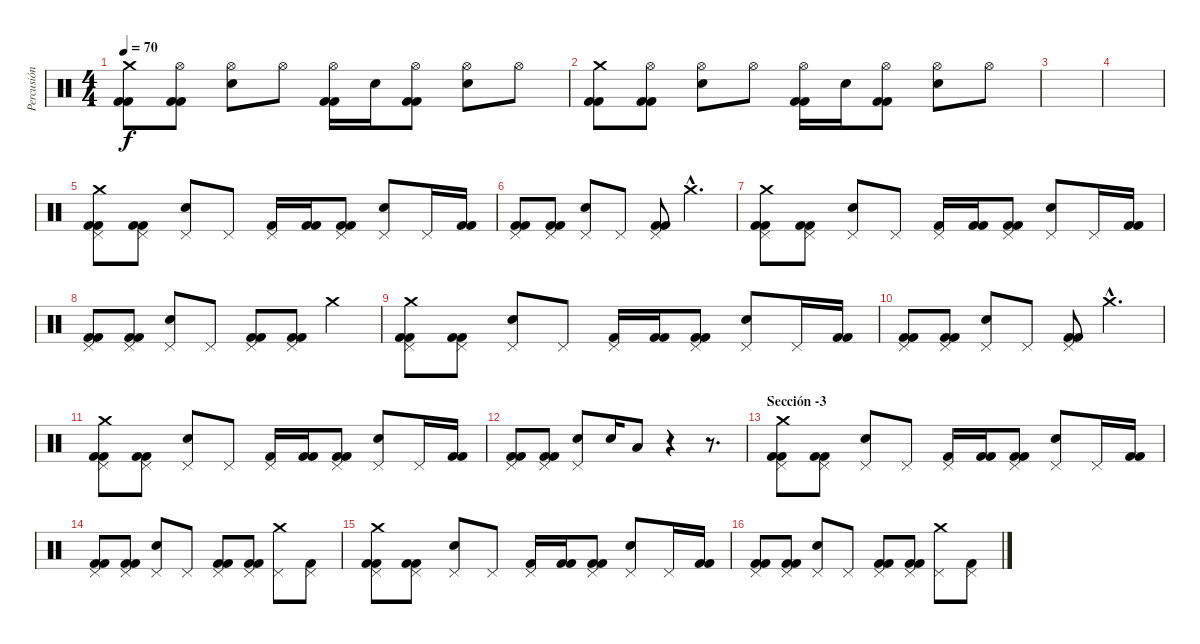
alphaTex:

\track ("Percusión" "Percusión") {instrument percussion}
\staff {score}
\articulation defaults
\ts (4 4)
\tempo 70
\clef neutral
\ks c
("Crash medium (hit)" "Kick (hit) 2" "Kick (hit) 2").8{dy f} ("Hi-Hat (open)" "Kick (hit) 2" "Kick (hit) 2").8 ("Hi-Hat (open)" "Electric Snare (hit)").8 "Hi-Hat (open)".8 ("Hi-Hat (open)" "Kick (hit) 2" "Kick (hit) 2").16 "Electric Snare (hit)".16 ("Hi-Hat (open)" "Kick (hit) 2" "Kick (hit) 2").8 ("Hi-Hat (open)" "Electric Snare (hit)").8 "Hi-Hat (open)".8 |
("Crash medium (hit)" "Kick (hit) 2" "Kick (hit) 2").8 ("Hi-Hat (open)" "Kick (hit) 2" "Kick (hit) 2").8 ("Hi-Hat (open)" "Electric Snare (hit)").8 "Hi-Hat (open)".8 ("Hi-Hat (open)" "Kick (hit) 2" "Kick (hit) 2").16 "Electric Snare (hit)".16 ("Hi-Hat (open)" "Kick (hit) 2" "Kick (hit) 2").8 ("Hi-Hat (open)" "Electric Snare (hit)").8 "Hi-Hat (open)".8 |
|
|
("Crash medium (hit)" "Pedal Hi-Hat (hit)" "Kick (hit) 2" "Kick (hit) 2").8 ("Pedal Hi-Hat (hit)" "Kick (hit) 2" "Kick (hit) 2").8 ("Snare (hit) 2" "Pedal Hi-Hat (hit)").8 "Pedal Hi-Hat (hit)".8 ("Pedal Hi-Hat (hit)" "Kick (hit) 2").16 ("Kick (hit) 2" "Kick (hit) 2").16 ("Pedal Hi-Hat (hit)" "Kick (hit) 2" "Kick (hit) 2").8 ("Pedal Hi-Hat (hit)" "Snare (hit) 2").8 "Pedal Hi-Hat (hit)".16 ("Kick (hit) 2" "Kick (hit) 2").16 |
("Pedal Hi-Hat (hit)" "Kick (hit) 2" "Kick (hit) 2").8 ("Pedal Hi-Hat (hit)" "Kick (hit) 2" "Kick (hit) 2").8 ("Snare (hit) 2" "Pedal Hi-Hat (hit)").8 "Pedal Hi-Hat (hit)".8 ("Pedal Hi-Hat (hit)" "Kick (hit) 2" "Kick (hit) 2").8 "Crash medium (hit)"{hac}.4{d} |
("Crash medium (hit)" "Pedal Hi-Hat (hit)" "Kick (hit) 2" "Kick (hit) 2").8 ("Pedal Hi-Hat (hit)" "Kick (hit) 2" "Kick (hit) 2").8 ("Snare (hit) 2" "Pedal Hi-Hat (hit)").8 "Pedal Hi-Hat (hit)".8 ("Pedal Hi-Hat (hit)" "Kick (hit) 2").16 ("Kick (hit) 2" "Kick (hit) 2").16 ("Pedal Hi-Hat (hit)" "Kick (hit) 2" "Kick (hit) 2").8 ("Pedal Hi-Hat (hit)" "Snare (hit) 2").8 "Pedal Hi-Hat (hit)".16 ("Kick (hit) 2" "Kick (hit) 2").16 |
("Pedal Hi-Hat (hit)" "Kick (hit) 2" "Kick (hit) 2").8 ("Pedal Hi-Hat (hit)" "Kick (hit) 2" "Kick (hit) 2").8 ("Snare (hit) 2" "Pedal Hi-Hat (hit)").8 "Pedal Hi-Hat (hit)".8 ("Pedal Hi-Hat (hit)" "Kick (hit) 2" "Kick (hit) 2").8 ("Pedal Hi-Hat (hit)" "Kick (hit) 2" "Kick (hit) 2").8 "Crash medium (hit)".4 |
("Crash medium (hit)" "Pedal Hi-Hat (hit)" "Kick (hit) 2" "Kick (hit) 2").8 ("Pedal Hi-Hat (hit)" "Kick (hit) 2" "Kick (hit) 2").8 ("Snare (hit) 2" "Pedal Hi-Hat (hit)").8 "Pedal Hi-Hat (hit)".8 ("Pedal Hi-Hat (hit)" "Kick (hit) 2").16 ("Kick (hit) 2" "Kick (hit) 2").16 ("Pedal Hi-Hat (hit)" "Kick (hit) 2" "Kick (hit) 2").8 ("Pedal Hi-Hat (hit)" "Snare (hit) 2").8 "Pedal Hi-Hat (hit)".16 ("Kick (hit) 2" "Kick (hit) 2").16 |
("Pedal Hi-Hat (hit)" "Kick (hit) 2" "Kick (hit) 2").8 ("Pedal Hi-Hat (hit)" "Kick (hit) 2" "Kick (hit) 2").8 ("Snare (hit) 2" "Pedal Hi-Hat (hit)").8 "Pedal Hi-Hat (hit)".8 ("Pedal Hi-Hat (hit)" "Kick (hit) 2" "Kick (hit) 2").8 "Crash medium (hit)"{hac}.4{d} |
("Crash medium (hit)" "Pedal Hi-Hat (hit)" "Kick (hit) 2" "Kick (hit) 2").8 ("Pedal Hi-Hat (hit)" "Kick (hit) 2" "Kick (hit) 2").8 ("Snare (hit) 2" "Pedal Hi-Hat (hit)").8 "Pedal Hi-Hat (hit)".8 ("Pedal Hi-Hat (hit)" "Kick (hit) 2").16 ("Kick (hit) 2" "Kick (hit) 2").16 ("Pedal Hi-Hat (hit)" "Kick (hit) 2" "Kick (hit) 2").8 ("Pedal Hi-Hat (hit)" "Snare (hit) 2").8 "Pedal Hi-Hat (hit)".16 ("Kick (hit) 2" "Kick (hit) 2").16 |
("Pedal Hi-Hat (hit)" "Kick (hit) 2" "Kick (hit) 2").8 ("Pedal Hi-Hat (hit)" "Kick (hit) 2" "Kick (hit) 2").8 ("Snare (hit) 2" "Pedal Hi-Hat (hit)").8 "Snare (hit) 2".16 "Low Tom (hit)".8 r.4 r.8{d} |
\section ("" "Sección -3")
("Crash medium (hit)" "Pedal Hi-Hat (hit)" "Kick (hit) 2" "Kick (hit) 2").8 ("Pedal Hi-Hat (hit)" "Kick (hit) 2" "Kick (hit) 2").8 ("Snare (hit) 2" "Pedal Hi-Hat (hit)").8 "Pedal Hi-Hat (hit)".8 ("Pedal Hi-Hat (hit)" "Kick (hit) 2").16 ("Kick (hit) 2" "Kick (hit) 2").16 ("Pedal Hi-Hat (hit)" "Kick (hit) 2" "Kick (hit) 2").8 ("Pedal Hi-Hat (hit)" "Snare (hit) 2").8 "Pedal Hi-Hat (hit)".16 ("Kick (hit) 2" "Kick (hit) 2").16 |
("Pedal Hi-Hat (hit)" "Kick (hit) 2" "Kick (hit) 2").8 ("Pedal Hi-Hat (hit)" "Kick (hit) 2" "Kick (hit) 2").8 ("Snare (hit) 2" "Pedal Hi-Hat (hit)").8 "Pedal Hi-Hat (hit)".8 ("Pedal Hi-Hat (hit)" "Kick (hit) 2" "Kick (hit) 2").8 ("Pedal Hi-Hat (hit)" "Kick (hit) 2" "Kick (hit) 2").8 ("Crash medium (hit)" "Pedal Hi-Hat (hit)").8 ("Pedal Hi-Hat (hit)" "Kick (hit) 2").8 |
("Crash medium (hit)" "Pedal Hi-Hat (hit)" "Kick (hit) 2" "Kick (hit) 2").8 ("Pedal Hi-Hat (hit)" "Kick (hit) 2" "Kick (hit) 2").8 ("Snare (hit) 2" "Pedal Hi-Hat (hit)").8 "Pedal Hi-Hat (hit)".8 ("Pedal Hi-Hat (hit)" "Kick (hit) 2").16 ("Kick (hit) 2" "Kick (hit) 2").16 ("Pedal Hi-Hat (hit)" "Kick (hit) 2" "Kick (hit) 2").8 ("Pedal Hi-Hat (hit)" "Snare (hit) 2").8 "Pedal Hi-Hat (hit)".16 ("Kick (hit) 2" "Kick (hit) 2").16 |
("Pedal Hi-Hat (hit)" "Kick (hit) 2" "Kick (hit) 2").8 ("Pedal Hi-Hat (hit)" "Kick (hit) 2" "Kick (hit) 2").8 ("Snare (hit) 2" "Pedal Hi-Hat (hit)").8 "Pedal Hi-Hat (hit)".8 ("Pedal Hi-Hat (hit)" "Kick (hit) 2" "Kick (hit) 2").8 ("Pedal Hi-Hat (hit)" "Kick (hit) 2" "Kick (hit) 2").8 ("Crash medium (hit)" "Pedal Hi-Hat (hit)").8 ("Pedal Hi-Hat (hit)" "Kick (hit) 2").8
